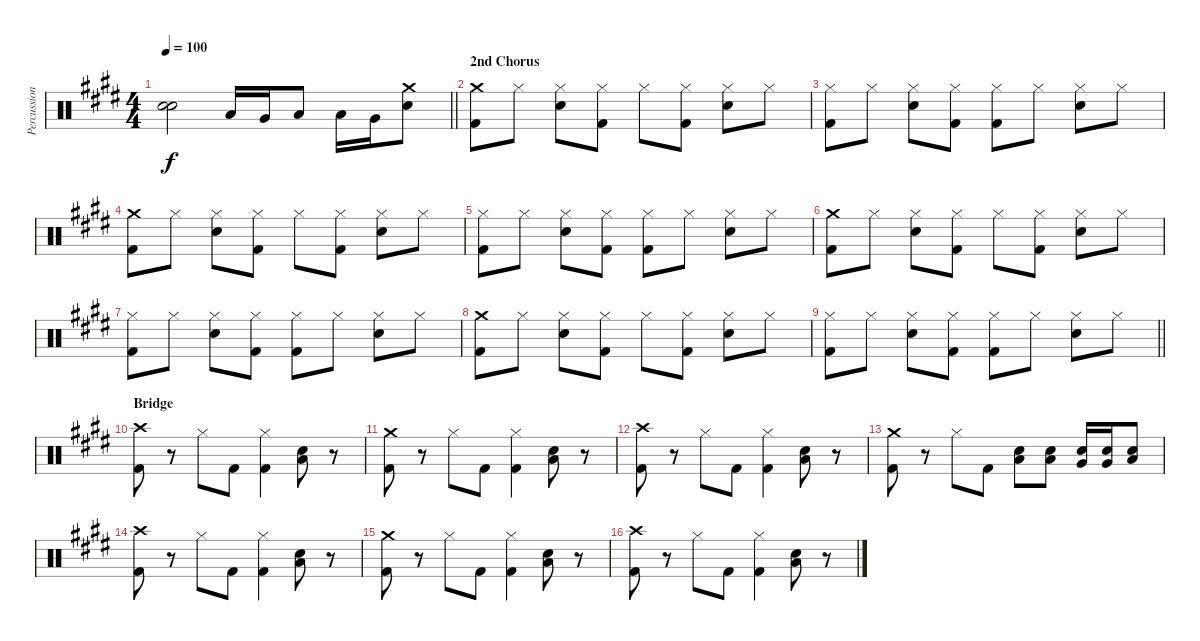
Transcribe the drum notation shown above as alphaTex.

\track ("Percussion" "Percussion") {instrument percussion}
\staff {score}
\articulation defaults
\ts (4 4)
\tempo 100
\clef neutral
\barLineRight lightlight
\ks c#minor
("Snare (hit)"{t} "Snare (hit)"{t}).2{dy f} "Low Tom (hit)".16 "Very Low Tom (hit)".16 "Low Floor Tom (hit)".8 "Low Tom (hit)".16 "Very Low Tom (hit)".16 ("Crash medium (hit)" "Snare (hit) 2").8 |
\section ("" "2nd Chorus")
("Crash medium (hit)" "Kick (hit) 2").8 "Hi-Hat (closed)".8 ("Hi-Hat (closed)" "Snare (hit) 2").8 ("Hi-Hat (closed)" "Kick (hit) 2").8 "Hi-Hat (closed)".8 ("Hi-Hat (closed)" "Kick (hit) 2").8 ("Hi-Hat (closed)" "Snare (hit) 2").8 "Hi-Hat (closed)".8 |
("Hi-Hat (closed)" "Kick (hit) 2").8 "Hi-Hat (closed)".8 ("Hi-Hat (closed)" "Snare (hit) 2").8 ("Hi-Hat (closed)" "Kick (hit) 2").8 ("Hi-Hat (closed)" "Kick (hit) 2").8 "Hi-Hat (closed)".8 ("Hi-Hat (closed)" "Snare (hit) 2").8 "Hi-Hat (closed)".8 |
("Crash medium (hit)" "Kick (hit) 2").8 "Hi-Hat (closed)".8 ("Hi-Hat (closed)" "Snare (hit) 2").8 ("Hi-Hat (closed)" "Kick (hit) 2").8 "Hi-Hat (closed)".8 ("Hi-Hat (closed)" "Kick (hit) 2").8 ("Hi-Hat (closed)" "Snare (hit) 2").8 "Hi-Hat (closed)".8 |
("Hi-Hat (closed)" "Kick (hit) 2").8 "Hi-Hat (closed)".8 ("Hi-Hat (closed)" "Snare (hit) 2").8 ("Hi-Hat (closed)" "Kick (hit) 2").8 ("Hi-Hat (closed)" "Kick (hit) 2").8 "Hi-Hat (closed)".8 ("Hi-Hat (closed)" "Snare (hit) 2").8 "Hi-Hat (closed)".8 |
("Crash medium (hit)" "Kick (hit) 2").8 "Hi-Hat (closed)".8 ("Hi-Hat (closed)" "Snare (hit) 2").8 ("Hi-Hat (closed)" "Kick (hit) 2").8 "Hi-Hat (closed)".8 ("Hi-Hat (closed)" "Kick (hit) 2").8 ("Hi-Hat (closed)" "Snare (hit) 2").8 "Hi-Hat (closed)".8 |
("Hi-Hat (closed)" "Kick (hit) 2").8 "Hi-Hat (closed)".8 ("Hi-Hat (closed)" "Snare (hit) 2").8 ("Hi-Hat (closed)" "Kick (hit) 2").8 ("Hi-Hat (closed)" "Kick (hit) 2").8 "Hi-Hat (closed)".8 ("Hi-Hat (closed)" "Snare (hit) 2").8 "Hi-Hat (closed)".8 |
("Crash medium (hit)" "Kick (hit) 2").8 "Hi-Hat (closed)".8 ("Hi-Hat (closed)" "Snare (hit) 2").8 ("Hi-Hat (closed)" "Kick (hit) 2").8 "Hi-Hat (closed)".8 ("Hi-Hat (closed)" "Kick (hit) 2").8 ("Hi-Hat (closed)" "Snare (hit) 2").8 "Hi-Hat (closed)".8 |
\barLineRight lightlight
("Hi-Hat (closed)" "Kick (hit) 2").8 "Hi-Hat (closed)".8 ("Hi-Hat (closed)" "Snare (hit) 2").8 ("Hi-Hat (closed)" "Kick (hit) 2").8 ("Hi-Hat (closed)" "Kick (hit) 2").8 "Hi-Hat (closed)".8 ("Hi-Hat (closed)" "Snare (hit) 2").8 "Hi-Hat (closed)".8 |
\section ("" "Bridge")
("Crash high (hit)" "Kick (hit) 2").8 r.8 "Hi-Hat (closed)".8 "Kick (hit) 2".8 ("Hi-Hat (closed)" "Kick (hit) 2").4 ("Snare (hit) 2" "Low Floor Tom (hit)").8 r.8 |
("Crash medium (hit)" "Kick (hit) 2").8 r.8 "Hi-Hat (closed)".8 "Kick (hit) 2".8 ("Hi-Hat (closed)" "Kick (hit) 2").4 ("Snare (hit) 2" "Low Floor Tom (hit)").8 r.8 |
("Crash high (hit)" "Kick (hit) 2").8 r.8 "Hi-Hat (closed)".8 "Kick (hit) 2".8 ("Hi-Hat (closed)" "Kick (hit) 2").4 ("Snare (hit) 2" "Low Floor Tom (hit)").8 r.8 |
("Crash medium (hit)" "Kick (hit) 2").8 r.8 "Hi-Hat (closed)".8 "Kick (hit) 2".8 ("Snare (hit) 2" "Low Tom (hit)").8 ("Snare (hit) 2" "Low Tom (hit)").8 ("Snare (hit) 2" "Very Low Tom (hit)").16 ("Snare (hit) 2" "Very Low Tom (hit)").16 ("Snare (hit) 2" "Low Floor Tom (hit)").8 |
("Crash high (hit)" "Kick (hit) 2").8 r.8 "Hi-Hat (closed)".8 "Kick (hit) 2".8 ("Hi-Hat (closed)" "Kick (hit) 2").4 ("Snare (hit) 2" "Low Floor Tom (hit)").8 r.8 |
("Crash medium (hit)" "Kick (hit) 2").8 r.8 "Hi-Hat (closed)".8 "Kick (hit) 2".8 ("Hi-Hat (closed)" "Kick (hit) 2").4 ("Snare (hit) 2" "Low Floor Tom (hit)").8 r.8 |
("Crash high (hit)" "Kick (hit) 2").8 r.8 "Hi-Hat (closed)".8 "Kick (hit) 2".8 ("Hi-Hat (closed)" "Kick (hit) 2").4 ("Snare (hit) 2" "Low Floor Tom (hit)").8 r.8
